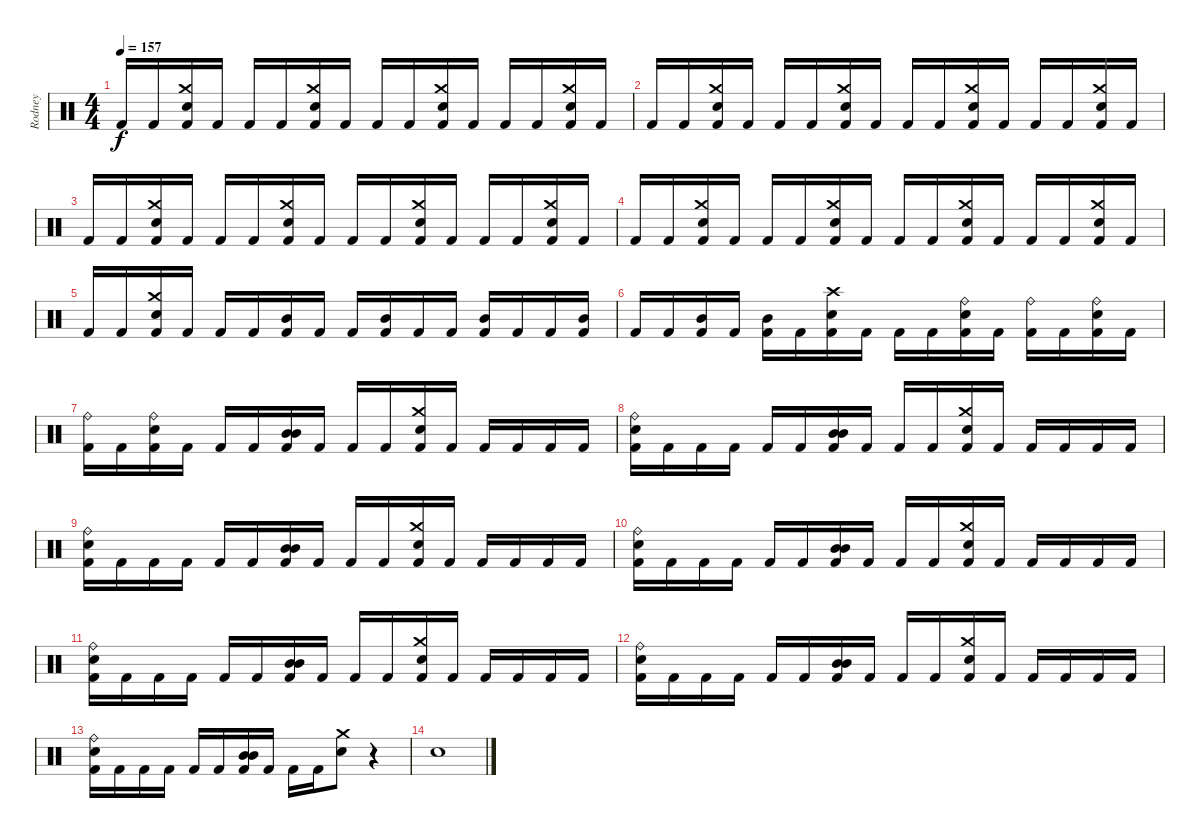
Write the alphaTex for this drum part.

\track ("Rodney" "Rodney") {instrument percussion}
\staff {score}
\articulation defaults
\ts (4 4)
\tempo 157
\clef neutral
\ks c "Kick (hit) 2".16{dy f} "Kick (hit) 2".16
("Crash medium (hit)" "Snare (hit) 2" "Kick (hit) 2").16 "Kick (hit) 2".16 "Kick (hit) 2".16 "Kick (hit) 2".16 ("Crash medium (hit)" "Snare (hit) 2" "Kick (hit) 2").16 "Kick (hit) 2".16 "Kick (hit) 2".16 "Kick (hit) 2".16 ("Crash medium (hit)" "Snare (hit) 2" "Kick (hit) 2").16 "Kick (hit) 2".16 "Kick (hit) 2".16 "Kick (hit) 2".16 ("Crash medium (hit)" "Snare (hit) 2" "Kick (hit) 2").16 "Kick (hit) 2".16 |
"Kick (hit) 2".16 "Kick (hit) 2".16 ("Crash medium (hit)" "Snare (hit) 2" "Kick (hit) 2").16 "Kick (hit) 2".16 "Kick (hit) 2".16 "Kick (hit) 2".16 ("Crash medium (hit)" "Snare (hit) 2" "Kick (hit) 2").16 "Kick (hit) 2".16 "Kick (hit) 2".16 "Kick (hit) 2".16 ("Crash medium (hit)" "Snare (hit) 2" "Kick (hit) 2").16 "Kick (hit) 2".16 "Kick (hit) 2".16 "Kick (hit) 2".16 ("Crash medium (hit)" "Snare (hit) 2" "Kick (hit) 2").16 "Kick (hit) 2".16 |
"Kick (hit) 2".16 "Kick (hit) 2".16 ("Crash medium (hit)" "Snare (hit) 2" "Kick (hit) 2").16 "Kick (hit) 2".16 "Kick (hit) 2".16 "Kick (hit) 2".16 ("Crash medium (hit)" "Snare (hit) 2" "Kick (hit) 2").16 "Kick (hit) 2".16 "Kick (hit) 2".16 "Kick (hit) 2".16 ("Crash medium (hit)" "Snare (hit) 2" "Kick (hit) 2").16 "Kick (hit) 2".16 "Kick (hit) 2".16 "Kick (hit) 2".16 ("Crash medium (hit)" "Snare (hit) 2" "Kick (hit) 2").16 "Kick (hit) 2".16 |
"Kick (hit) 2".16 "Kick (hit) 2".16 ("Crash medium (hit)" "Snare (hit) 2" "Kick (hit) 2").16 "Kick (hit) 2".16 "Kick (hit) 2".16 "Kick (hit) 2".16 ("Crash medium (hit)" "Snare (hit) 2" "Kick (hit) 2").16 "Kick (hit) 2".16 "Kick (hit) 2".16 "Kick (hit) 2".16 ("Crash medium (hit)" "Snare (hit) 2" "Kick (hit) 2").16 "Kick (hit) 2".16 "Kick (hit) 2".16 "Kick (hit) 2".16 ("Crash medium (hit)" "Snare (hit) 2" "Kick (hit) 2").16 "Kick (hit) 2".16 |
"Kick (hit) 2".16 "Kick (hit) 2".16 ("Crash medium (hit)" "Snare (hit) 2" "Kick (hit) 2").16 "Kick (hit) 2".16 "Kick (hit) 2".16 "Kick (hit) 2".16 ("Mid Tom (hit)" "Kick (hit) 2").16 "Kick (hit) 2".16 "Kick (hit) 2".16 ("Mid Tom (hit)" "Kick (hit) 2").16 "Kick (hit) 2".16 "Kick (hit) 2".16 ("Mid Tom (hit)" "Kick (hit) 2").16 "Kick (hit) 2".16 "Kick (hit) 2".16 ("Mid Tom (hit)" "Kick (hit) 2").16 |
"Kick (hit) 2".16 "Kick (hit) 2".16 ("Mid Tom (hit)" "Kick (hit) 2").16 "Kick (hit) 2".16 ("Mid Tom (hit)" "Kick (hit) 2").16 "Kick (hit) 2".16 ("Crash high (hit)" "Snare (hit) 2" "Kick (hit) 2").16 "Kick (hit) 2".16 "Kick (hit) 2".16 "Kick (hit) 2".16 ("Ride (bell)" "Snare (hit) 2" "Kick (hit) 2").16 "Kick (hit) 2".16 ("Ride (bell)" "Kick (hit) 2").16 "Kick (hit) 2".16 ("Ride (bell)" "Snare (hit) 2" "Kick (hit) 2").16 "Kick (hit) 2".16 |
("Ride (bell)" "Kick (hit) 2").16 "Kick (hit) 2".16 ("Ride (bell)" "Snare (hit) 2" "Kick (hit) 2").16 "Kick (hit) 2".16 "Kick (hit) 2".16 "Kick (hit) 2".16 ("Mid Tom (hit)" "Mid Tom (hit)" "Kick (hit) 2").16 "Kick (hit) 2".16 "Kick (hit) 2".16 "Kick (hit) 2".16 ("Crash medium (hit)" "Snare (hit) 2" "Kick (hit) 2").16 "Kick (hit) 2".16 "Kick (hit) 2".16 "Kick (hit) 2".16 "Kick (hit) 2".16 "Kick (hit) 2".16 |
("Ride (bell)" "Snare (hit) 2" "Kick (hit) 2").16 "Kick (hit) 2".16 "Kick (hit) 2".16 "Kick (hit) 2".16 "Kick (hit) 2".16 "Kick (hit) 2".16 ("Mid Tom (hit)" "Mid Tom (hit)" "Kick (hit) 2").16 "Kick (hit) 2".16 "Kick (hit) 2".16 "Kick (hit) 2".16 ("Crash medium (hit)" "Snare (hit) 2" "Kick (hit) 2").16 "Kick (hit) 2".16 "Kick (hit) 2".16 "Kick (hit) 2".16 "Kick (hit) 2".16 "Kick (hit) 2".16 |
("Ride (bell)" "Snare (hit) 2" "Kick (hit) 2").16 "Kick (hit) 2".16 "Kick (hit) 2".16 "Kick (hit) 2".16 "Kick (hit) 2".16 "Kick (hit) 2".16 ("Mid Tom (hit)" "Mid Tom (hit)" "Kick (hit) 2").16 "Kick (hit) 2".16 "Kick (hit) 2".16 "Kick (hit) 2".16 ("Crash medium (hit)" "Snare (hit) 2" "Kick (hit) 2").16 "Kick (hit) 2".16 "Kick (hit) 2".16 "Kick (hit) 2".16 "Kick (hit) 2".16 "Kick (hit) 2".16 |
("Ride (bell)" "Snare (hit) 2" "Kick (hit) 2").16 "Kick (hit) 2".16 "Kick (hit) 2".16 "Kick (hit) 2".16 "Kick (hit) 2".16 "Kick (hit) 2".16 ("Mid Tom (hit)" "Mid Tom (hit)" "Kick (hit) 2").16 "Kick (hit) 2".16 "Kick (hit) 2".16 "Kick (hit) 2".16 ("Crash medium (hit)" "Snare (hit) 2" "Kick (hit) 2").16 "Kick (hit) 2".16 "Kick (hit) 2".16 "Kick (hit) 2".16 "Kick (hit) 2".16 "Kick (hit) 2".16 |
("Ride (bell)" "Snare (hit) 2" "Kick (hit) 2").16 "Kick (hit) 2".16 "Kick (hit) 2".16 "Kick (hit) 2".16 "Kick (hit) 2".16 "Kick (hit) 2".16 ("Mid Tom (hit)" "Mid Tom (hit)" "Kick (hit) 2").16 "Kick (hit) 2".16 "Kick (hit) 2".16 "Kick (hit) 2".16 ("Crash medium (hit)" "Snare (hit) 2" "Kick (hit) 2").16 "Kick (hit) 2".16 "Kick (hit) 2".16 "Kick (hit) 2".16 "Kick (hit) 2".16 "Kick (hit) 2".16 |
("Ride (bell)" "Snare (hit) 2" "Kick (hit) 2").16 "Kick (hit) 2".16 "Kick (hit) 2".16 "Kick (hit) 2".16 "Kick (hit) 2".16 "Kick (hit) 2".16 ("Mid Tom (hit)" "Mid Tom (hit)" "Kick (hit) 2").16 "Kick (hit) 2".16 "Kick (hit) 2".16 "Kick (hit) 2".16 ("Crash medium (hit)" "Snare (hit) 2" "Kick (hit) 2").16 "Kick (hit) 2".16 "Kick (hit) 2".16 "Kick (hit) 2".16 "Kick (hit) 2".16 "Kick (hit) 2".16 |
("Ride (bell)" "Snare (hit) 2" "Kick (hit) 2").16 "Kick (hit) 2".16 "Kick (hit) 2".16 "Kick (hit) 2".16 "Kick (hit) 2".16 "Kick (hit) 2".16 ("Mid Tom (hit)" "Mid Tom (hit)" "Kick (hit) 2").16 "Kick (hit) 2".16 "Kick (hit) 2".16 "Kick (hit) 2".16 ("Crash medium (hit)" "Snare (hit) 2").8 r.4 |
"Snare (hit)".1
